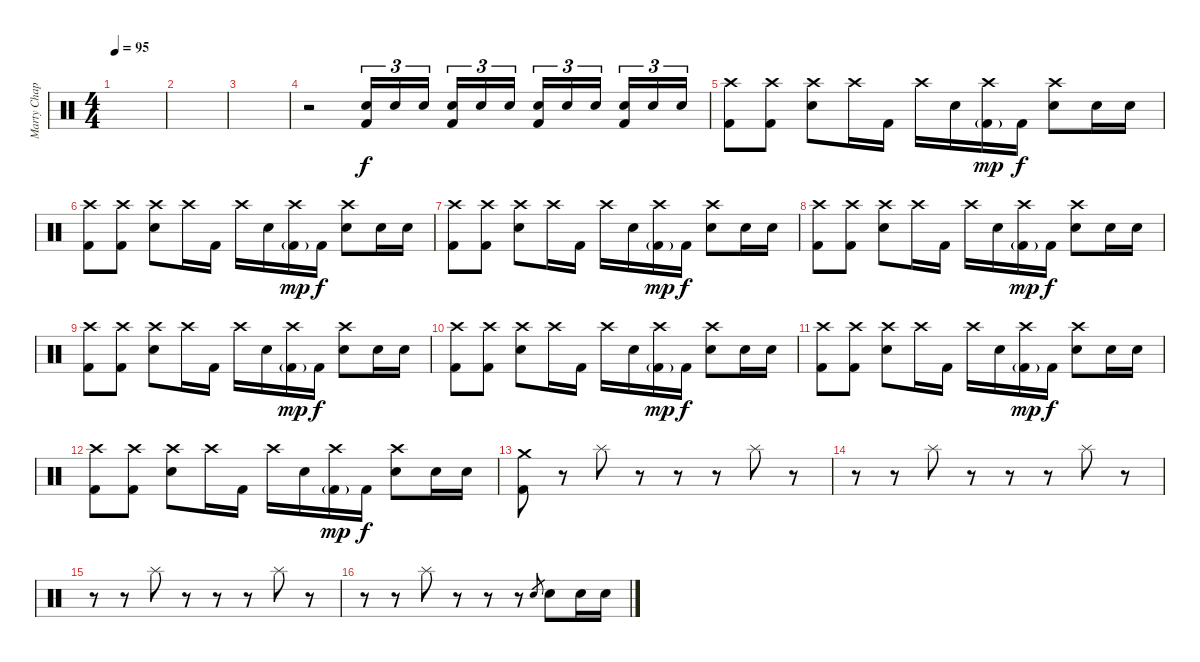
\track ("Marty Chapman (Drums)" "Marty Chap") {instrument percussion}
\staff {score}
\articulation defaults
\ts (4 4)
\tempo 95
\clef neutral
\ks c
|
|
|
r.2 ("Electric Snare (hit)" "Kick (hit) 2").16{tu (3 2)} "Electric Snare (hit)".16{tu (3 2)} "Electric Snare (hit)".16{tu (3 2) beam splitsecondary} ("Electric Snare (hit)" "Kick (hit) 2").16{tu (3 2)} "Electric Snare (hit)".16{tu (3 2)} "Electric Snare (hit)".16{tu (3 2)} ("Electric Snare (hit)" "Kick (hit) 2").16{tu (3 2)} "Electric Snare (hit)".16{tu (3 2)} "Electric Snare (hit)".16{tu (3 2) beam splitsecondary} ("Electric Snare (hit)" "Kick (hit) 2").16{tu (3 2)} "Electric Snare (hit)".16{tu (3 2)} "Electric Snare (hit)".16{tu (3 2)} |
("Crash high (hit)" "Kick (hit) 2").8 ("Crash high (hit)" "Kick (hit) 2").8 ("Crash high (hit)" "Electric Snare (hit)").8 "Crash high (hit)".16 "Kick (hit) 2".16 "Crash high (hit)".16 "Electric Snare (hit)".16 ("Crash high (hit)" "Kick (hit) 2"{g}).16{dy mp} "Kick (hit) 2".16{dy f} ("Crash high (hit)" "Electric Snare (hit)").8 "Electric Snare (hit)".16 "Electric Snare (hit)".16 |
("Crash high (hit)" "Kick (hit) 2").8 ("Crash high (hit)" "Kick (hit) 2").8 ("Crash high (hit)" "Electric Snare (hit)").8 "Crash high (hit)".16 "Kick (hit) 2".16 "Crash high (hit)".16 "Electric Snare (hit)".16 ("Crash high (hit)" "Kick (hit) 2"{g}).16{dy mp} "Kick (hit) 2".16{dy f} ("Crash high (hit)" "Electric Snare (hit)").8 "Electric Snare (hit)".16 "Electric Snare (hit)".16 |
("Crash high (hit)" "Kick (hit) 2").8 ("Crash high (hit)" "Kick (hit) 2").8 ("Crash high (hit)" "Electric Snare (hit)").8 "Crash high (hit)".16 "Kick (hit) 2".16 "Crash high (hit)".16 "Electric Snare (hit)".16 ("Crash high (hit)" "Kick (hit) 2"{g}).16{dy mp} "Kick (hit) 2".16{dy f} ("Crash high (hit)" "Electric Snare (hit)").8 "Electric Snare (hit)".16 "Electric Snare (hit)".16 |
("Crash high (hit)" "Kick (hit) 2").8 ("Crash high (hit)" "Kick (hit) 2").8 ("Crash high (hit)" "Electric Snare (hit)").8 "Crash high (hit)".16 "Kick (hit) 2".16 "Crash high (hit)".16 "Electric Snare (hit)".16 ("Crash high (hit)" "Kick (hit) 2"{g}).16{dy mp} "Kick (hit) 2".16{dy f} ("Crash high (hit)" "Electric Snare (hit)").8 "Electric Snare (hit)".16 "Electric Snare (hit)".16 |
("Crash high (hit)" "Kick (hit) 2").8 ("Crash high (hit)" "Kick (hit) 2").8 ("Crash high (hit)" "Electric Snare (hit)").8 "Crash high (hit)".16 "Kick (hit) 2".16 "Crash high (hit)".16 "Electric Snare (hit)".16 ("Crash high (hit)" "Kick (hit) 2"{g}).16{dy mp} "Kick (hit) 2".16{dy f} ("Crash high (hit)" "Electric Snare (hit)").8 "Electric Snare (hit)".16 "Electric Snare (hit)".16 |
("Crash high (hit)" "Kick (hit) 2").8 ("Crash high (hit)" "Kick (hit) 2").8 ("Crash high (hit)" "Electric Snare (hit)").8 "Crash high (hit)".16 "Kick (hit) 2".16 "Crash high (hit)".16 "Electric Snare (hit)".16 ("Crash high (hit)" "Kick (hit) 2"{g}).16{dy mp} "Kick (hit) 2".16{dy f} ("Crash high (hit)" "Electric Snare (hit)").8 "Electric Snare (hit)".16 "Electric Snare (hit)".16 |
("Crash high (hit)" "Kick (hit) 2").8 ("Crash high (hit)" "Kick (hit) 2").8 ("Crash high (hit)" "Electric Snare (hit)").8 "Crash high (hit)".16 "Kick (hit) 2".16 "Crash high (hit)".16 "Electric Snare (hit)".16 ("Crash high (hit)" "Kick (hit) 2"{g}).16{dy mp} "Kick (hit) 2".16{dy f} ("Crash high (hit)" "Electric Snare (hit)").8 "Electric Snare (hit)".16 "Electric Snare (hit)".16 |
("Crash high (hit)" "Kick (hit) 2").8 ("Crash high (hit)" "Kick (hit) 2").8 ("Crash high (hit)" "Electric Snare (hit)").8 "Crash high (hit)".16 "Kick (hit) 2".16 "Crash high (hit)".16 "Electric Snare (hit)".16 ("Crash high (hit)" "Kick (hit) 2"{g}).16{dy mp} "Kick (hit) 2".16{dy f} ("Crash high (hit)" "Electric Snare (hit)").8 "Electric Snare (hit)".16 "Electric Snare (hit)".16 |
("Crash medium (hit)" "Kick (hit) 2").8 r.8 "Splash (hit)".8 r.8 r.8 r.8 "Splash (hit)".8 r.8 |
r.8 r.8 "Splash (hit)".8 r.8 r.8 r.8 "Splash (hit)".8 r.8 |
r.8 r.8 "Splash (hit)".8 r.8 r.8 r.8 "Splash (hit)".8 r.8 |
r.8 r.8 "Splash (hit)".8 r.8 r.8 r.8 "Electric Snare (hit)".8{gr} "Electric Snare (hit)".8 "Electric Snare (hit)".16 "Electric Snare (hit)".16
